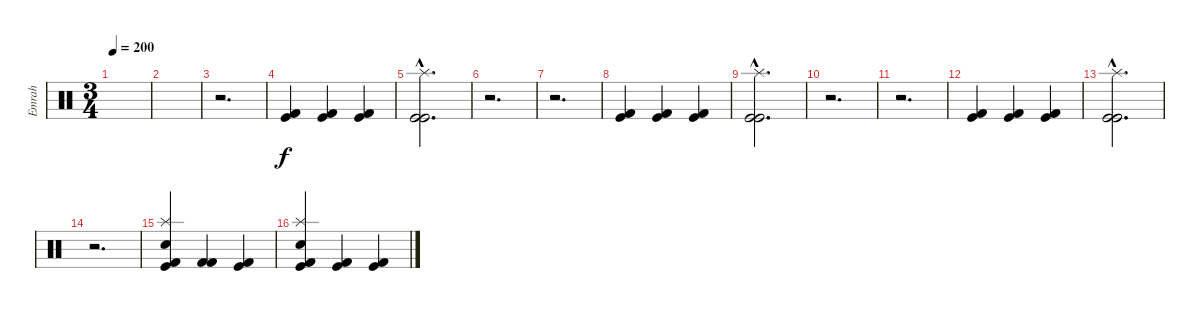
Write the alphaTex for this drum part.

\track ("Emrah" "Emrah") {instrument percussion}
\staff {score}
\articulation defaults
\ts (3 4)
\tempo 200
\clef neutral
\ks c
|
|
r.2{d} |
("Kick (hit)" "Kick (hit) 2").4 ("Kick (hit) 2" "Kick (hit)").4 ("Kick (hit) 2" "Kick (hit)").4 |
("Splash (hit)"{hac} "Kick (hit)"{hac} "Kick (hit)"{hac}).2{d} |
r.2{d} |
r.2{d} |
("Kick (hit)" "Kick (hit) 2").4 ("Kick (hit) 2" "Kick (hit)").4 ("Kick (hit) 2" "Kick (hit)").4 |
("Splash (hit)"{hac} "Kick (hit)"{hac} "Kick (hit)"{hac}).2{d} |
r.2{d} |
r.2{d} |
("Kick (hit)" "Kick (hit) 2").4 ("Kick (hit) 2" "Kick (hit)").4 ("Kick (hit) 2" "Kick (hit)").4 |
("Splash (hit)"{hac} "Kick (hit)"{hac} "Kick (hit)"{hac}).2{d} |
r.2{d} |
("Splash (hit)" "Snare (hit) 2" "Kick (hit)" "Kick (hit) 2").4 ("Kick (hit) 2" "Kick (hit) 2").4 ("Kick (hit)" "Kick (hit) 2").4 |
("Splash (hit)" "Snare (hit) 2" "Kick (hit)" "Kick (hit) 2").4 ("Kick (hit)" "Kick (hit) 2").4 ("Kick (hit)" "Kick (hit) 2").4
